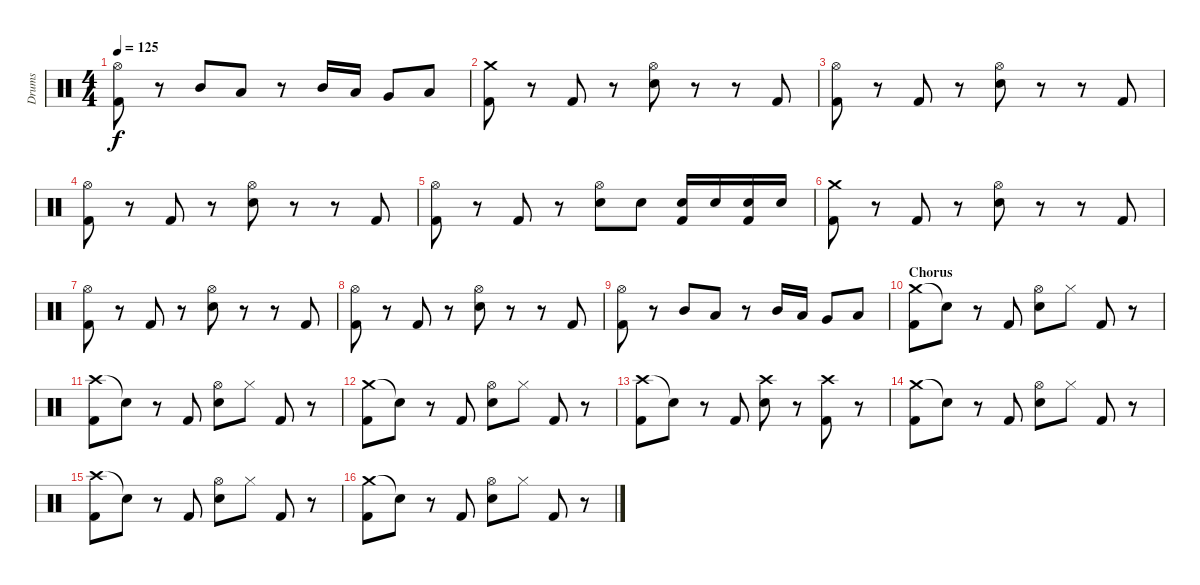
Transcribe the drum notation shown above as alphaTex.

\track ("Drums" "Drums") {instrument percussion}
\staff {score}
\articulation defaults
\ts (4 4)
\tempo 125
\clef neutral
\ks c
("Hi-Hat (open)" "Kick (hit) 2").8{dy f} r.8 "Mid Tom (hit)".8 "Low Tom (hit)".8 r.8 "Mid Tom (hit)".16 "Low Tom (hit)".16 "Very Low Tom (hit)".8 "Low Floor Tom (hit)".8 |
("Crash medium (hit)" "Kick (hit) 2").8 r.8 "Kick (hit) 2".8 r.8 ("Hi-Hat (open)" "Electric Snare (hit)").8 r.8 r.8 "Kick (hit) 2".8 |
("Hi-Hat (open)" "Kick (hit) 2").8 r.8 "Kick (hit) 2".8 r.8 ("Hi-Hat (open)" "Electric Snare (hit)").8 r.8 r.8 "Kick (hit) 2".8 |
("Hi-Hat (open)" "Kick (hit) 2").8 r.8 "Kick (hit) 2".8 r.8 ("Hi-Hat (open)" "Electric Snare (hit)").8 r.8 r.8 "Kick (hit) 2".8 |
("Hi-Hat (open)" "Kick (hit) 2").8 r.8 "Kick (hit) 2".8 r.8 ("Hi-Hat (open)" "Electric Snare (hit)").8 "Electric Snare (hit)".8 ("Electric Snare (hit)" "Kick (hit) 2").16 "Electric Snare (hit)".16 ("Electric Snare (hit)" "Kick (hit) 2").16 "Electric Snare (hit)".16 |
("Crash medium (hit)" "Kick (hit) 2").8 r.8 "Kick (hit) 2".8 r.8 ("Hi-Hat (open)" "Electric Snare (hit)").8 r.8 r.8 "Kick (hit) 2".8 |
("Hi-Hat (open)" "Kick (hit) 2").8 r.8 "Kick (hit) 2".8 r.8 ("Hi-Hat (open)" "Electric Snare (hit)").8 r.8 r.8 "Kick (hit) 2".8 |
("Hi-Hat (open)" "Kick (hit) 2").8 r.8 "Kick (hit) 2".8 r.8 ("Hi-Hat (open)" "Electric Snare (hit)").8 r.8 r.8 "Kick (hit) 2".8 |
("Hi-Hat (open)" "Kick (hit) 2").8 r.8 "Mid Tom (hit)".8 "Low Tom (hit)".8 r.8 "Mid Tom (hit)".16 "Low Tom (hit)".16 "Very Low Tom (hit)".8 "Low Floor Tom (hit)".8 |
\section ("" "Chorus")
("Crash medium (hit)" "Kick (hit) 2").8 "Snare (hit)"{t}.8 r.8 "Kick (hit) 2".8 ("Hi-Hat (open)" "Electric Snare (hit)").8 "Hi-Hat (closed)".8 "Kick (hit) 2".8 r.8 |
("Crash high (hit)" "Kick (hit) 2").8 "Snare (hit)"{t}.8 r.8 "Kick (hit) 2".8 ("Hi-Hat (open)" "Electric Snare (hit)").8 "Hi-Hat (closed)".8 "Kick (hit) 2".8 r.8 |
("Crash medium (hit)" "Kick (hit) 2").8 "Snare (hit)"{t}.8 r.8 "Kick (hit) 2".8 ("Hi-Hat (open)" "Electric Snare (hit)").8 "Hi-Hat (closed)".8 "Kick (hit) 2".8 r.8 |
("Crash high (hit)" "Kick (hit) 2").8 "Snare (hit)"{t}.8 r.8 "Kick (hit) 2".8 ("Crash high (hit)" "Electric Snare (hit)").8 r.8 ("Crash high (hit)" "Kick (hit) 2").8 r.8 |
("Crash medium (hit)" "Kick (hit) 2").8 "Snare (hit)"{t}.8 r.8 "Kick (hit) 2".8 ("Hi-Hat (open)" "Electric Snare (hit)").8 "Hi-Hat (closed)".8 "Kick (hit) 2".8 r.8 |
("Crash high (hit)" "Kick (hit) 2").8 "Snare (hit)"{t}.8 r.8 "Kick (hit) 2".8 ("Hi-Hat (open)" "Electric Snare (hit)").8 "Hi-Hat (closed)".8 "Kick (hit) 2".8 r.8 |
("Crash medium (hit)" "Kick (hit) 2").8 "Snare (hit)"{t}.8 r.8 "Kick (hit) 2".8 ("Hi-Hat (open)" "Electric Snare (hit)").8 "Hi-Hat (closed)".8 "Kick (hit) 2".8 r.8
